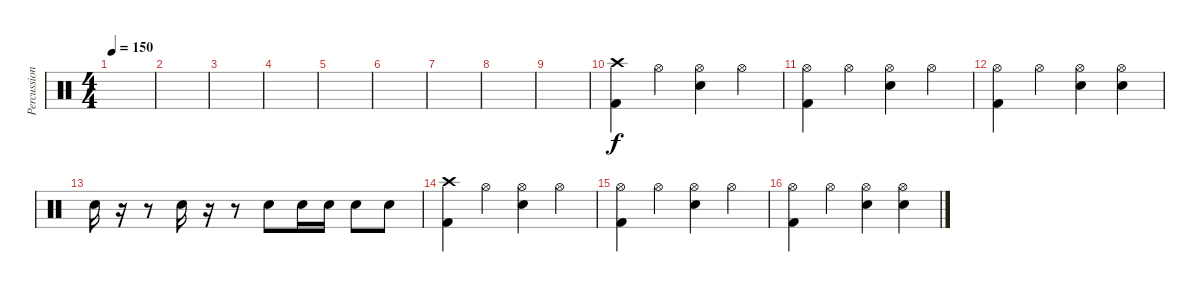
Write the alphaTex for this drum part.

\track ("Percussion" "Percussion") {instrument percussion}
\staff {score}
\articulation defaults
\ts (4 4)
\tempo 150
\clef neutral
\ks c
|
|
|
|
|
|
|
|
|
("Crash high (hit)" "Kick (hit) 2").4 "Hi-Hat (open)".4 ("Hi-Hat (open)" "Electric Snare (hit)").4 "Hi-Hat (open)".4 |
("Hi-Hat (open)" "Kick (hit) 2").4 "Hi-Hat (open)".4 ("Hi-Hat (open)" "Electric Snare (hit)").4 "Hi-Hat (open)".4 |
("Hi-Hat (open)" "Kick (hit) 2").4 "Hi-Hat (open)".4 ("Hi-Hat (open)" "Electric Snare (hit)").4 ("Hi-Hat (open)" "Electric Snare (hit)").4 |
"Snare (hit) 2".16 r.16 r.8 "Snare (hit) 2".16 r.16 r.8 "Snare (hit) 2".8 "Snare (hit) 2".16 "Snare (hit) 2".16 "Snare (hit) 2".8 "Snare (hit) 2".8 |
("Crash high (hit)" "Kick (hit) 2").4 "Hi-Hat (open)".4 ("Hi-Hat (open)" "Electric Snare (hit)").4 "Hi-Hat (open)".4 |
("Hi-Hat (open)" "Kick (hit) 2").4 "Hi-Hat (open)".4 ("Hi-Hat (open)" "Electric Snare (hit)").4 "Hi-Hat (open)".4 |
("Hi-Hat (open)" "Kick (hit) 2").4 "Hi-Hat (open)".4 ("Hi-Hat (open)" "Electric Snare (hit)").4 ("Hi-Hat (open)" "Electric Snare (hit)").4
